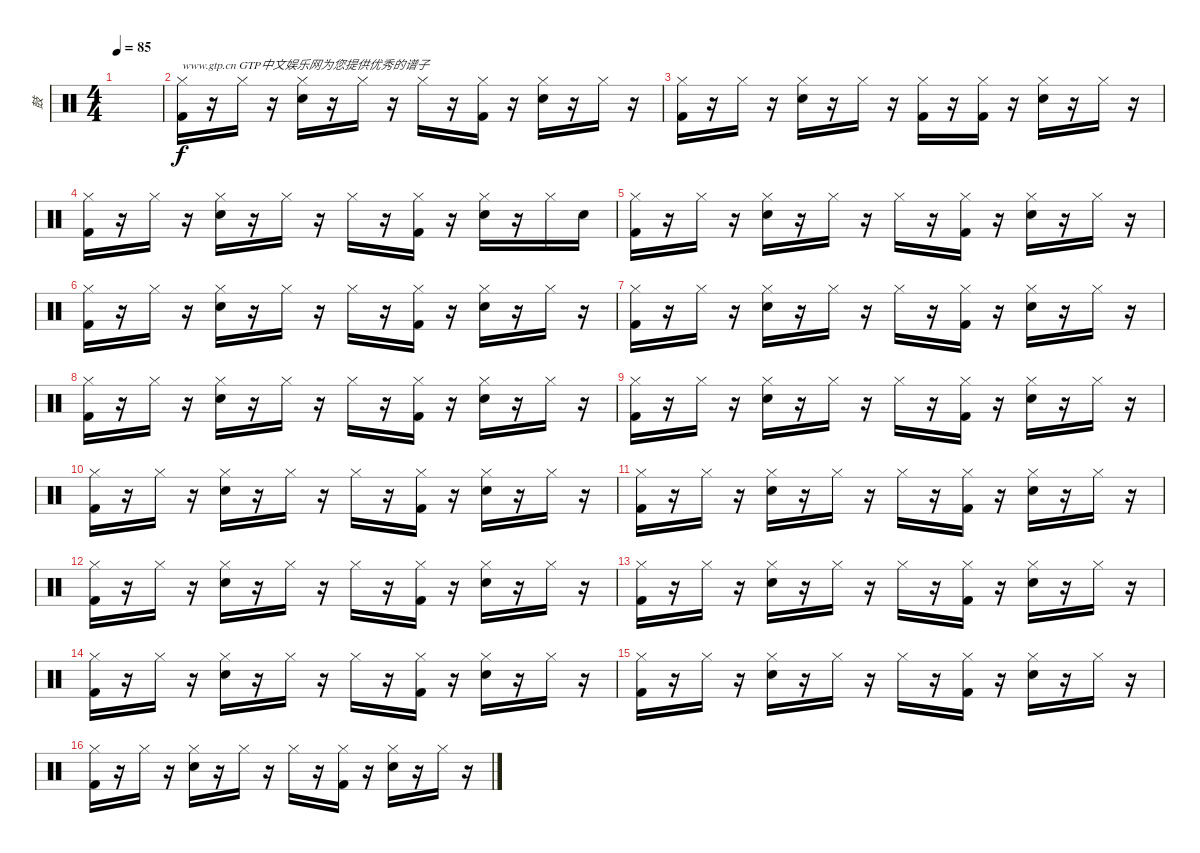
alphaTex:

\track ("鼓" "鼓") {instrument percussion}
\staff {score}
\articulation defaults
\ts (4 4)
\tempo 85
\clef neutral
\ks c
|
("Hi-Hat (closed)" "Kick (hit) 2").16{txt "www.gtp.cn GTP中文娱乐网为您提供优秀的谱子"} r.16 "Hi-Hat (closed)".16 r.16 ("Hi-Hat (closed)" "Snare (hit) 2").16 r.16 "Hi-Hat (closed)".16 r.16 "Hi-Hat (closed)".16 r.16 ("Hi-Hat (closed)" "Kick (hit) 2").16 r.16 ("Hi-Hat (closed)" "Snare (hit) 2").16 r.16 "Hi-Hat (closed)".16 r.16 |
("Hi-Hat (closed)" "Kick (hit) 2").16 r.16 "Hi-Hat (closed)".16 r.16 ("Hi-Hat (closed)" "Snare (hit) 2").16 r.16 "Hi-Hat (closed)".16 r.16 ("Hi-Hat (closed)" "Kick (hit) 2").16 r.16 ("Hi-Hat (closed)" "Kick (hit) 2").16 r.16 ("Hi-Hat (closed)" "Snare (hit) 2").16 r.16 "Hi-Hat (closed)".16 r.16 |
("Hi-Hat (closed)" "Kick (hit) 2").16 r.16 "Hi-Hat (closed)".16 r.16 ("Hi-Hat (closed)" "Snare (hit) 2").16 r.16 "Hi-Hat (closed)".16 r.16 "Hi-Hat (closed)".16 r.16 ("Hi-Hat (closed)" "Kick (hit) 2").16 r.16 ("Hi-Hat (closed)" "Snare (hit) 2").16 r.16 "Hi-Hat (closed)".16 "Snare (hit) 2".16 |
("Hi-Hat (closed)" "Kick (hit) 2").16 r.16 "Hi-Hat (closed)".16 r.16 ("Hi-Hat (closed)" "Snare (hit) 2").16 r.16 "Hi-Hat (closed)".16 r.16 "Hi-Hat (closed)".16 r.16 ("Hi-Hat (closed)" "Kick (hit) 2").16 r.16 ("Hi-Hat (closed)" "Snare (hit) 2").16 r.16 "Hi-Hat (closed)".16 r.16 |
("Hi-Hat (closed)" "Kick (hit) 2").16 r.16 "Hi-Hat (closed)".16 r.16 ("Hi-Hat (closed)" "Snare (hit) 2").16 r.16 "Hi-Hat (closed)".16 r.16 "Hi-Hat (closed)".16 r.16 ("Hi-Hat (closed)" "Kick (hit) 2").16 r.16 ("Hi-Hat (closed)" "Snare (hit) 2").16 r.16 "Hi-Hat (closed)".16 r.16 |
("Hi-Hat (closed)" "Kick (hit) 2").16 r.16 "Hi-Hat (closed)".16 r.16 ("Hi-Hat (closed)" "Snare (hit) 2").16 r.16 "Hi-Hat (closed)".16 r.16 "Hi-Hat (closed)".16 r.16 ("Hi-Hat (closed)" "Kick (hit) 2").16 r.16 ("Hi-Hat (closed)" "Snare (hit) 2").16 r.16 "Hi-Hat (closed)".16 r.16 |
("Hi-Hat (closed)" "Kick (hit) 2").16 r.16 "Hi-Hat (closed)".16 r.16 ("Hi-Hat (closed)" "Snare (hit) 2").16 r.16 "Hi-Hat (closed)".16 r.16 "Hi-Hat (closed)".16 r.16 ("Hi-Hat (closed)" "Kick (hit) 2").16 r.16 ("Hi-Hat (closed)" "Snare (hit) 2").16 r.16 "Hi-Hat (closed)".16 r.16 |
("Hi-Hat (closed)" "Kick (hit) 2").16 r.16 "Hi-Hat (closed)".16 r.16 ("Hi-Hat (closed)" "Snare (hit) 2").16 r.16 "Hi-Hat (closed)".16 r.16 "Hi-Hat (closed)".16 r.16 ("Hi-Hat (closed)" "Kick (hit) 2").16 r.16 ("Hi-Hat (closed)" "Snare (hit) 2").16 r.16 "Hi-Hat (closed)".16 r.16 |
("Hi-Hat (closed)" "Kick (hit) 2").16 r.16 "Hi-Hat (closed)".16 r.16 ("Hi-Hat (closed)" "Snare (hit) 2").16 r.16 "Hi-Hat (closed)".16 r.16 "Hi-Hat (closed)".16 r.16 ("Hi-Hat (closed)" "Kick (hit) 2").16 r.16 ("Hi-Hat (closed)" "Snare (hit) 2").16 r.16 "Hi-Hat (closed)".16 r.16 |
("Hi-Hat (closed)" "Kick (hit) 2").16 r.16 "Hi-Hat (closed)".16 r.16 ("Hi-Hat (closed)" "Snare (hit) 2").16 r.16 "Hi-Hat (closed)".16 r.16 "Hi-Hat (closed)".16 r.16 ("Hi-Hat (closed)" "Kick (hit) 2").16 r.16 ("Hi-Hat (closed)" "Snare (hit) 2").16 r.16 "Hi-Hat (closed)".16 r.16 |
("Hi-Hat (closed)" "Kick (hit) 2").16 r.16 "Hi-Hat (closed)".16 r.16 ("Hi-Hat (closed)" "Snare (hit) 2").16 r.16 "Hi-Hat (closed)".16 r.16 "Hi-Hat (closed)".16 r.16 ("Hi-Hat (closed)" "Kick (hit) 2").16 r.16 ("Hi-Hat (closed)" "Snare (hit) 2").16 r.16 "Hi-Hat (closed)".16 r.16 |
("Hi-Hat (closed)" "Kick (hit) 2").16 r.16 "Hi-Hat (closed)".16 r.16 ("Hi-Hat (closed)" "Snare (hit) 2").16 r.16 "Hi-Hat (closed)".16 r.16 "Hi-Hat (closed)".16 r.16 ("Hi-Hat (closed)" "Kick (hit) 2").16 r.16 ("Hi-Hat (closed)" "Snare (hit) 2").16 r.16 "Hi-Hat (closed)".16 r.16 |
("Hi-Hat (closed)" "Kick (hit) 2").16 r.16 "Hi-Hat (closed)".16 r.16 ("Hi-Hat (closed)" "Snare (hit) 2").16 r.16 "Hi-Hat (closed)".16 r.16 "Hi-Hat (closed)".16 r.16 ("Hi-Hat (closed)" "Kick (hit) 2").16 r.16 ("Hi-Hat (closed)" "Snare (hit) 2").16 r.16 "Hi-Hat (closed)".16 r.16 |
("Hi-Hat (closed)" "Kick (hit) 2").16 r.16 "Hi-Hat (closed)".16 r.16 ("Hi-Hat (closed)" "Snare (hit) 2").16 r.16 "Hi-Hat (closed)".16 r.16 "Hi-Hat (closed)".16 r.16 ("Hi-Hat (closed)" "Kick (hit) 2").16 r.16 ("Hi-Hat (closed)" "Snare (hit) 2").16 r.16 "Hi-Hat (closed)".16 r.16 |
("Hi-Hat (closed)" "Kick (hit) 2").16 r.16 "Hi-Hat (closed)".16 r.16 ("Hi-Hat (closed)" "Snare (hit) 2").16 r.16 "Hi-Hat (closed)".16 r.16 "Hi-Hat (closed)".16 r.16 ("Hi-Hat (closed)" "Kick (hit) 2").16 r.16 ("Hi-Hat (closed)" "Snare (hit) 2").16 r.16 "Hi-Hat (closed)".16 r.16
